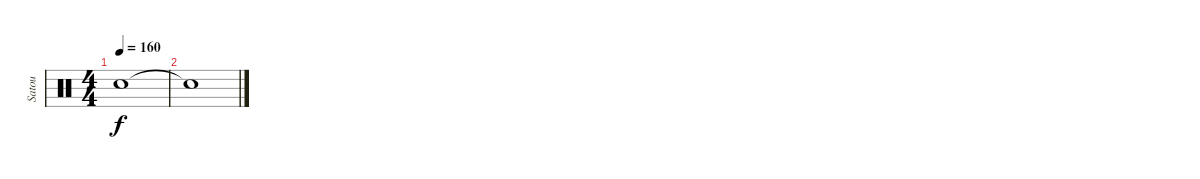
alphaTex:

\track ("Satou" "Satou") {instrument percussion}
\staff {score}
\articulation defaults
\ts (4 4)
\tempo 160
\clef neutral
\ks c "Snare (hit) 2"{t}.1{dy f}
|
"Snare (hit) 2"{t}.1
